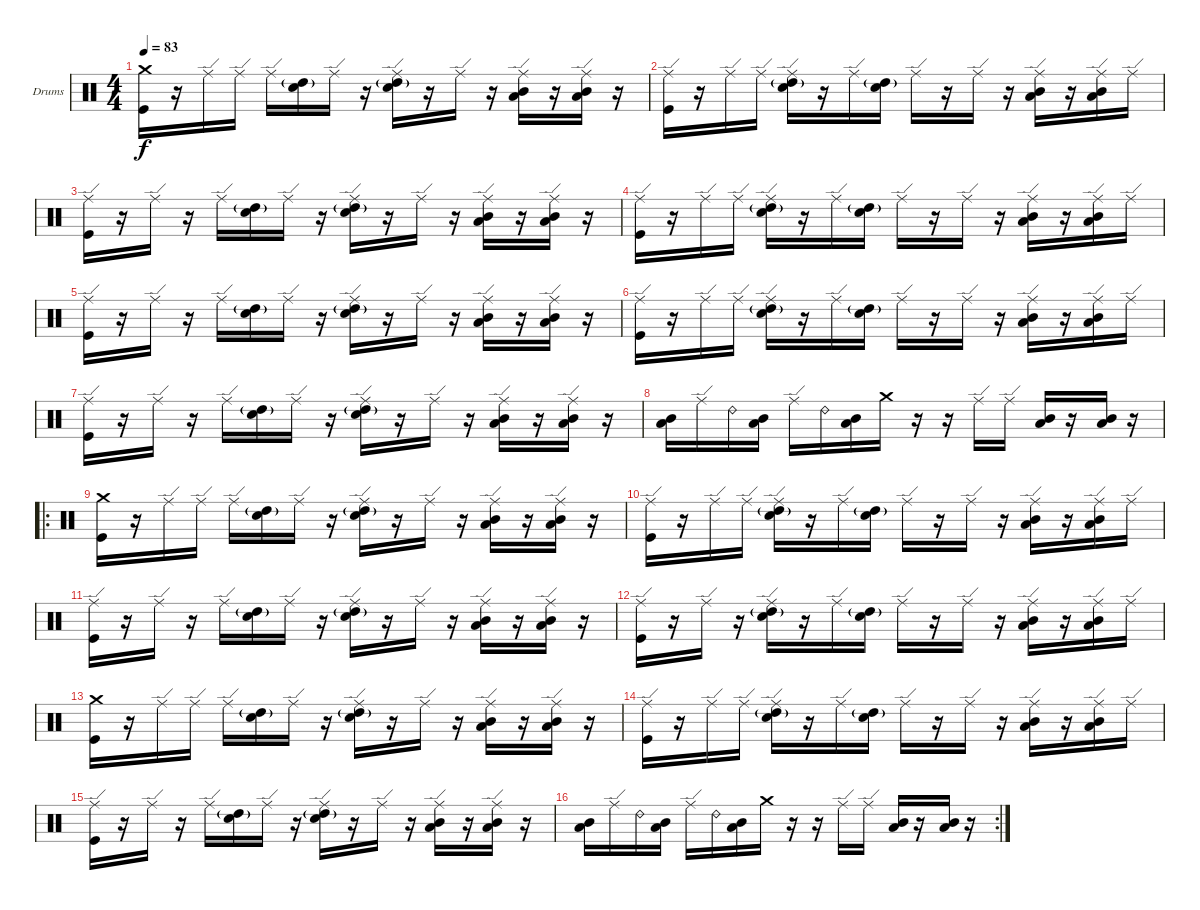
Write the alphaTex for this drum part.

\bracketExtendMode groupsimilarinstruments
\firstSystemTrackNameOrientation horizontal
\otherSystemsTrackNameOrientation horizontal
\track ("Drumkit" "Drums") {instrument percussion}
\staff {score}
\articulation defaults
\ts (4 4)
\tempo 83
\clef neutral
\ks c
("Crash medium (hit)" "Kick (hit)").16{dy f} r.16 "Ride (edge)".16 "Ride (edge)".16 "Ride (edge)".16 ("High Tom (hit)"{g} "Snare (hit) 2").16 "Ride (edge)".16 r.16 ("Ride (edge)" "High Tom (hit)"{g} "Snare (hit) 2").16 r.16 "Ride (edge)".16 r.16 ("Ride (edge)" "Low Tom (hit)" "Mid Tom (hit)").16 r.16 ("Ride (edge)" "Low Tom (hit)" "Mid Tom (hit)").16 r.16 |
("Ride (edge)" "Kick (hit)").16 r.16 "Ride (edge)".16 "Ride (edge)".16 ("Ride (edge)" "High Tom (hit)"{g} "Snare (hit) 2").16 r.16 "Ride (edge)".16 ("High Tom (hit)"{g} "Snare (hit) 2").16 "Ride (edge)".16 r.16 "Ride (edge)".16 r.16 ("Ride (edge)" "Low Tom (hit)" "Mid Tom (hit)").16 r.16 ("Ride (edge)" "Low Tom (hit)" "Mid Tom (hit)").16 "Ride (edge)".16 |
("Ride (edge)" "Kick (hit)").16 r.16 "Ride (edge)".16 r.16 "Ride (edge)".16 ("High Tom (hit)"{g} "Snare (hit) 2").16 "Ride (edge)".16 r.16 ("Ride (edge)" "High Tom (hit)"{g} "Snare (hit) 2").16 r.16 "Ride (edge)".16 r.16 ("Ride (edge)" "Low Tom (hit)" "Mid Tom (hit)").16 r.16 ("Ride (edge)" "Low Tom (hit)" "Mid Tom (hit)").16 r.16 |
("Ride (edge)" "Kick (hit)").16 r.16 "Ride (edge)".16 "Ride (edge)".16 ("Ride (edge)" "High Tom (hit)"{g} "Snare (hit) 2").16 r.16 "Ride (edge)".16 ("High Tom (hit)"{g} "Snare (hit) 2").16 "Ride (edge)".16 r.16 "Ride (edge)".16 r.16 ("Ride (edge)" "Low Tom (hit)" "Mid Tom (hit)").16 r.16 ("Ride (edge)" "Low Tom (hit)" "Mid Tom (hit)").16 "Ride (edge)".16 |
("Ride (edge)" "Kick (hit)").16 r.16 "Ride (edge)".16 r.16 "Ride (edge)".16 ("High Tom (hit)"{g} "Snare (hit) 2").16 "Ride (edge)".16 r.16 ("Ride (edge)" "High Tom (hit)"{g} "Snare (hit) 2").16 r.16 "Ride (edge)".16 r.16 ("Ride (edge)" "Low Tom (hit)" "Mid Tom (hit)").16 r.16 ("Ride (edge)" "Low Tom (hit)" "Mid Tom (hit)").16 r.16 |
("Ride (edge)" "Kick (hit)").16 r.16 "Ride (edge)".16 "Ride (edge)".16 ("Ride (edge)" "High Tom (hit)"{g} "Snare (hit) 2").16 r.16 "Ride (edge)".16 ("High Tom (hit)"{g} "Snare (hit) 2").16 "Ride (edge)".16 r.16 "Ride (edge)".16 r.16 ("Ride (edge)" "Low Tom (hit)" "Mid Tom (hit)").16 r.16 ("Ride (edge)" "Low Tom (hit)" "Mid Tom (hit)").16 "Ride (edge)".16 |
("Ride (edge)" "Kick (hit)").16 r.16 "Ride (edge)".16 r.16 "Ride (edge)".16 ("High Tom (hit)"{g} "Snare (hit) 2").16 "Ride (edge)".16 r.16 ("Ride (edge)" "High Tom (hit)"{g} "Snare (hit) 2").16 r.16 "Ride (edge)".16 r.16 ("Ride (edge)" "Low Tom (hit)" "Mid Tom (hit)").16 r.16 ("Ride (edge)" "Low Tom (hit)" "Mid Tom (hit)").16 r.16 |
("Low Tom (hit)" "Mid Tom (hit)").16 "Ride (edge)".16 "Ride (bell) 2".16 ("Low Tom (hit)" "Mid Tom (hit)").16 "Ride (edge)".16 "Ride (bell) 2".16 ("Low Tom (hit)" "Mid Tom (hit)").16 "Crash medium (hit)".16 r.16 r.16 "Ride (edge)".16 "Ride (edge)".16 ("Low Tom (hit)" "Mid Tom (hit)").16 r.16 ("Low Tom (hit)" "Mid Tom (hit)").16 r.16 |
\ro
("Crash medium (hit)" "Kick (hit)").16 r.16 "Ride (edge)".16 "Ride (edge)".16 "Ride (edge)".16 ("High Tom (hit)"{g} "Snare (hit) 2").16 "Ride (edge)".16 r.16 ("Ride (edge)" "High Tom (hit)"{g} "Snare (hit) 2").16 r.16 "Ride (edge)".16 r.16 ("Ride (edge)" "Low Tom (hit)" "Mid Tom (hit)").16 r.16 ("Ride (edge)" "Low Tom (hit)" "Mid Tom (hit)").16 r.16 |
("Ride (edge)" "Kick (hit)").16 r.16 "Ride (edge)".16 "Ride (edge)".16 ("Ride (edge)" "High Tom (hit)"{g} "Snare (hit) 2").16 r.16 "Ride (edge)".16 ("High Tom (hit)"{g} "Snare (hit) 2").16 "Ride (edge)".16 r.16 "Ride (edge)".16 r.16 ("Ride (edge)" "Low Tom (hit)" "Mid Tom (hit)").16 r.16 ("Ride (edge)" "Low Tom (hit)" "Mid Tom (hit)").16 "Ride (edge)".16 |
("Ride (edge)" "Kick (hit)").16 r.16 "Ride (edge)".16 r.16 "Ride (edge)".16 ("High Tom (hit)"{g} "Snare (hit) 2").16 "Ride (edge)".16 r.16 ("Ride (edge)" "High Tom (hit)"{g} "Snare (hit) 2").16 r.16 "Ride (edge)".16 r.16 ("Ride (edge)" "Low Tom (hit)" "Mid Tom (hit)").16 r.16 ("Ride (edge)" "Low Tom (hit)" "Mid Tom (hit)").16 r.16 |
("Ride (edge)" "Kick (hit)").16 r.16 "Ride (edge)".16 r.16 ("Ride (edge)" "High Tom (hit)"{g} "Snare (hit) 2").16 r.16 "Ride (edge)".16 ("High Tom (hit)"{g} "Snare (hit) 2").16 "Ride (edge)".16 r.16 "Ride (edge)".16 r.16 ("Ride (edge)" "Low Tom (hit)" "Mid Tom (hit)").16 r.16 ("Ride (edge)" "Low Tom (hit)" "Mid Tom (hit)").16 "Ride (edge)".16 |
("Crash medium (hit)" "Kick (hit)").16 r.16 "Ride (edge)".16 "Ride (edge)".16 "Ride (edge)".16 ("High Tom (hit)"{g} "Snare (hit) 2").16 "Ride (edge)".16 r.16 ("Ride (edge)" "High Tom (hit)"{g} "Snare (hit) 2").16 r.16 "Ride (edge)".16 r.16 ("Ride (edge)" "Low Tom (hit)" "Mid Tom (hit)").16 r.16 ("Ride (edge)" "Low Tom (hit)" "Mid Tom (hit)").16 r.16 |
("Ride (edge)" "Kick (hit)").16 r.16 "Ride (edge)".16 "Ride (edge)".16 ("Ride (edge)" "High Tom (hit)"{g} "Snare (hit) 2").16 r.16 "Ride (edge)".16 ("High Tom (hit)"{g} "Snare (hit) 2").16 "Ride (edge)".16 r.16 "Ride (edge)".16 r.16 ("Ride (edge)" "Low Tom (hit)" "Mid Tom (hit)").16 r.16 ("Ride (edge)" "Low Tom (hit)" "Mid Tom (hit)").16 "Ride (edge)".16 |
("Ride (edge)" "Kick (hit)").16 r.16 "Ride (edge)".16 r.16 "Ride (edge)".16 ("High Tom (hit)"{g} "Snare (hit) 2").16 "Ride (edge)".16 r.16 ("Ride (edge)" "High Tom (hit)"{g} "Snare (hit) 2").16 r.16 "Ride (edge)".16 r.16 ("Ride (edge)" "Low Tom (hit)" "Mid Tom (hit)").16 r.16 ("Ride (edge)" "Low Tom (hit)" "Mid Tom (hit)").16 r.16 |
\rc 2
("Low Tom (hit)" "Mid Tom (hit)").16 "Ride (edge)".16 "Ride (bell) 2".16 ("Low Tom (hit)" "Mid Tom (hit)").16 "Ride (edge)".16 "Ride (bell) 2".16 ("Low Tom (hit)" "Mid Tom (hit)").16 "Crash medium (hit)".16 r.16 r.16 "Ride (edge)".16 "Ride (edge)".16 ("Low Tom (hit)" "Mid Tom (hit)").16 r.16 ("Low Tom (hit)" "Mid Tom (hit)").16 r.16
